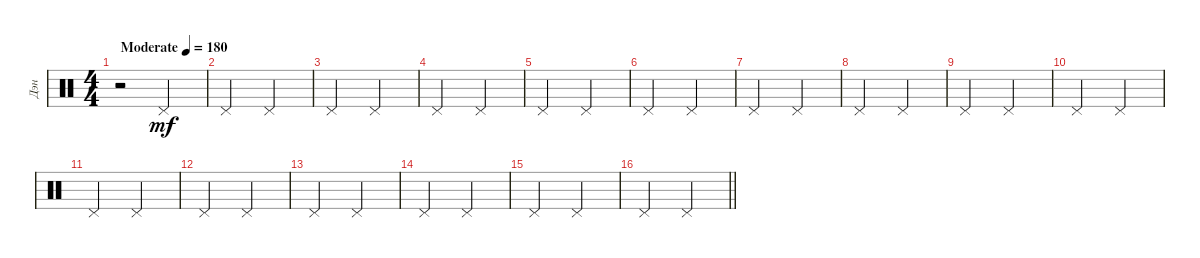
\track ("Дэн" "Дэн") {instrument percussion}
\staff {score}
\articulation defaults
\ts (4 4)
\tempo (180 "Moderate")
\clef neutral
\ks c
r.2{dy mf} "Pedal Hi-Hat (hit)".2 |
"Pedal Hi-Hat (hit)".2 "Pedal Hi-Hat (hit)".2 |
"Pedal Hi-Hat (hit)".2 "Pedal Hi-Hat (hit)".2 |
"Pedal Hi-Hat (hit)".2 "Pedal Hi-Hat (hit)".2 |
"Pedal Hi-Hat (hit)".2 "Pedal Hi-Hat (hit)".2 |
"Pedal Hi-Hat (hit)".2 "Pedal Hi-Hat (hit)".2 |
"Pedal Hi-Hat (hit)".2 "Pedal Hi-Hat (hit)".2 |
"Pedal Hi-Hat (hit)".2 "Pedal Hi-Hat (hit)".2 |
"Pedal Hi-Hat (hit)".2 "Pedal Hi-Hat (hit)".2 |
"Pedal Hi-Hat (hit)".2 "Pedal Hi-Hat (hit)".2 |
"Pedal Hi-Hat (hit)".2 "Pedal Hi-Hat (hit)".2 |
"Pedal Hi-Hat (hit)".2 "Pedal Hi-Hat (hit)".2 |
"Pedal Hi-Hat (hit)".2 "Pedal Hi-Hat (hit)".2 |
"Pedal Hi-Hat (hit)".2 "Pedal Hi-Hat (hit)".2 |
"Pedal Hi-Hat (hit)".2 "Pedal Hi-Hat (hit)".2 |
\barLineRight lightlight "Pedal Hi-Hat (hit)".2 "Pedal Hi-Hat (hit)".2
